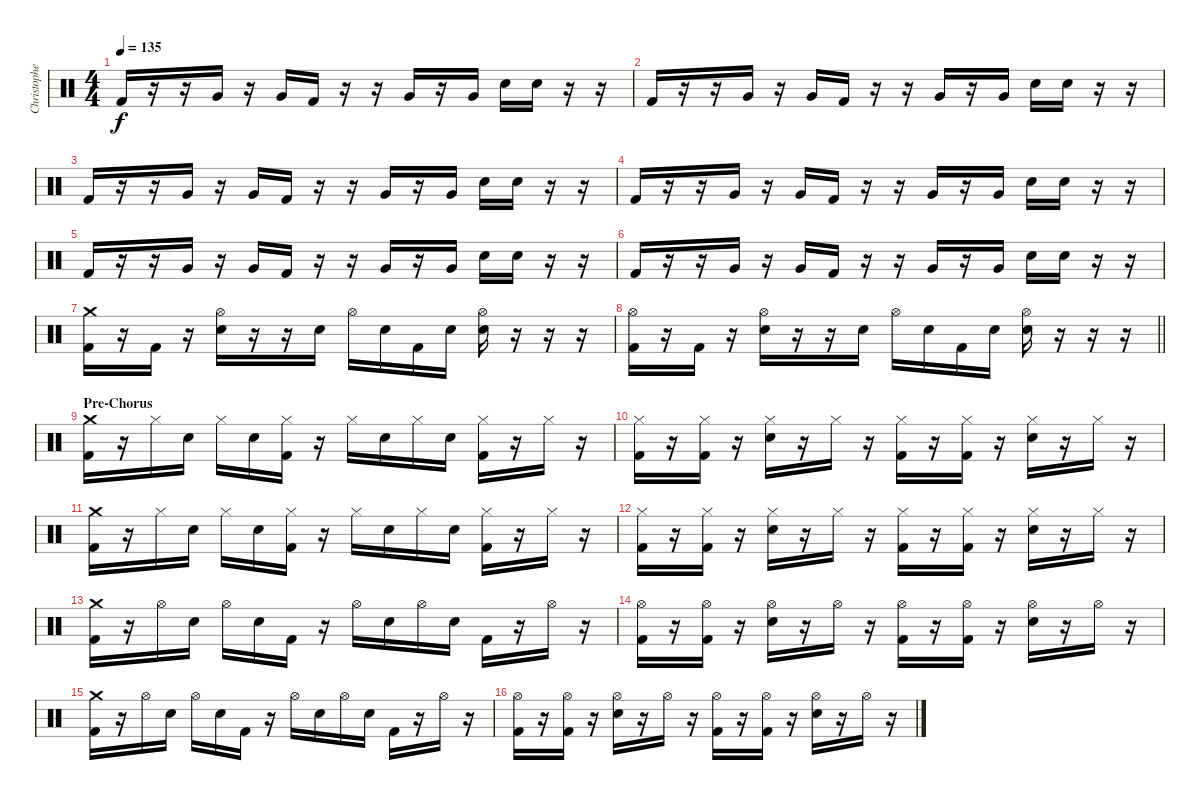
\track ("Christopher - Drums" "Christophe") {instrument percussion}
\staff {score}
\articulation defaults
\ts (4 4)
\tempo 135
\clef neutral
\ks c "Kick (hit) 2".16{dy f}
r.16 r.16 "Very Low Tom (hit)".16 r.16 "Very Low Tom (hit)".16 "Kick (hit) 2".16 r.16 r.16 "Very Low Tom (hit)".16 r.16 "Very Low Tom (hit)".16 "Electric Snare (hit)".16 "Electric Snare (hit)".16 r.16 r.16 |
"Kick (hit) 2".16 r.16 r.16 "Very Low Tom (hit)".16 r.16 "Very Low Tom (hit)".16 "Kick (hit) 2".16 r.16 r.16 "Very Low Tom (hit)".16 r.16 "Very Low Tom (hit)".16 "Electric Snare (hit)".16 "Electric Snare (hit)".16 r.16 r.16 |
"Kick (hit) 2".16 r.16 r.16 "Very Low Tom (hit)".16 r.16 "Very Low Tom (hit)".16 "Kick (hit) 2".16 r.16 r.16 "Very Low Tom (hit)".16 r.16 "Very Low Tom (hit)".16 "Electric Snare (hit)".16 "Electric Snare (hit)".16 r.16 r.16 |
"Kick (hit) 2".16 r.16 r.16 "Very Low Tom (hit)".16 r.16 "Very Low Tom (hit)".16 "Kick (hit) 2".16 r.16 r.16 "Very Low Tom (hit)".16 r.16 "Very Low Tom (hit)".16 "Electric Snare (hit)".16 "Electric Snare (hit)".16 r.16 r.16 |
"Kick (hit) 2".16 r.16 r.16 "Very Low Tom (hit)".16 r.16 "Very Low Tom (hit)".16 "Kick (hit) 2".16 r.16 r.16 "Very Low Tom (hit)".16 r.16 "Very Low Tom (hit)".16 "Electric Snare (hit)".16 "Electric Snare (hit)".16 r.16 r.16 |
"Kick (hit) 2".16 r.16 r.16 "Very Low Tom (hit)".16 r.16 "Very Low Tom (hit)".16 "Kick (hit) 2".16 r.16 r.16 "Very Low Tom (hit)".16 r.16 "Very Low Tom (hit)".16 "Electric Snare (hit)".16 "Electric Snare (hit)".16 r.16 r.16 |
("Crash medium (hit)" "Kick (hit) 2").16 r.16 "Kick (hit) 2".16 r.16 ("Hi-Hat (open)" "Electric Snare (hit)").16 r.16 r.16 "Electric Snare (hit)".16 "Hi-Hat (open)".16 "Electric Snare (hit)".16 "Kick (hit) 2".16 "Electric Snare (hit)".16 ("Hi-Hat (open)" "Electric Snare (hit)").16 r.16 r.16 r.16 |
\barLineRight lightlight
("Hi-Hat (open)" "Kick (hit) 2").16 r.16 "Kick (hit) 2".16 r.16 ("Hi-Hat (open)" "Electric Snare (hit)").16 r.16 r.16 "Electric Snare (hit)".16 "Hi-Hat (open)".16 "Electric Snare (hit)".16 "Kick (hit) 2".16 "Electric Snare (hit)".16 ("Hi-Hat (open)" "Electric Snare (hit)").16 r.16 r.16 r.16 |
\section ("" "Pre-Chorus")
("Crash medium (hit)" "Kick (hit) 2").16 r.16 "Hi-Hat (closed)".16 "Electric Snare (hit)".16 "Hi-Hat (closed)".16 "Electric Snare (hit)".16 ("Hi-Hat (closed)" "Kick (hit) 2").16 r.16 "Hi-Hat (closed)".16 "Electric Snare (hit)".16 "Hi-Hat (closed)".16 "Electric Snare (hit)".16 ("Hi-Hat (closed)" "Kick (hit) 2").16 r.16 "Hi-Hat (closed)".16 r.16 |
("Hi-Hat (closed)" "Kick (hit) 2").16 r.16 ("Hi-Hat (closed)" "Kick (hit) 2").16 r.16 ("Hi-Hat (closed)" "Electric Snare (hit)").16 r.16 "Hi-Hat (closed)".16 r.16 ("Hi-Hat (closed)" "Kick (hit) 2").16 r.16 ("Hi-Hat (closed)" "Kick (hit) 2").16 r.16 ("Hi-Hat (closed)" "Electric Snare (hit)").16 r.16 "Hi-Hat (closed)".16 r.16 |
("Crash medium (hit)" "Kick (hit) 2").16 r.16 "Hi-Hat (closed)".16 "Electric Snare (hit)".16 "Hi-Hat (closed)".16 "Electric Snare (hit)".16 ("Hi-Hat (closed)" "Kick (hit) 2").16 r.16 "Hi-Hat (closed)".16 "Electric Snare (hit)".16 "Hi-Hat (closed)".16 "Electric Snare (hit)".16 ("Hi-Hat (closed)" "Kick (hit) 2").16 r.16 "Hi-Hat (closed)".16 r.16 |
("Hi-Hat (closed)" "Kick (hit) 2").16 r.16 ("Hi-Hat (closed)" "Kick (hit) 2").16 r.16 ("Hi-Hat (closed)" "Electric Snare (hit)").16 r.16 "Hi-Hat (closed)".16 r.16 ("Hi-Hat (closed)" "Kick (hit) 2").16 r.16 ("Hi-Hat (closed)" "Kick (hit) 2").16 r.16 ("Hi-Hat (closed)" "Electric Snare (hit)").16 r.16 "Hi-Hat (closed)".16 r.16 |
("Crash medium (hit)" "Kick (hit) 2").16 r.16 "Hi-Hat (open)".16 "Electric Snare (hit)".16 "Hi-Hat (open)".16 "Electric Snare (hit)".16 "Kick (hit) 2".16 r.16 "Hi-Hat (open)".16 "Electric Snare (hit)".16 "Hi-Hat (open)".16 "Electric Snare (hit)".16 "Kick (hit) 2".16 r.16 "Hi-Hat (open)".16 r.16 |
("Hi-Hat (open)" "Kick (hit) 2").16 r.16 ("Hi-Hat (open)" "Kick (hit) 2").16 r.16 ("Hi-Hat (open)" "Electric Snare (hit)").16 r.16 "Hi-Hat (open)".16 r.16 ("Hi-Hat (open)" "Kick (hit) 2").16 r.16 ("Hi-Hat (open)" "Kick (hit) 2").16 r.16 ("Hi-Hat (open)" "Electric Snare (hit)").16 r.16 "Hi-Hat (open)".16 r.16 |
("Crash medium (hit)" "Kick (hit) 2").16 r.16 "Hi-Hat (open)".16 "Electric Snare (hit)".16 "Hi-Hat (open)".16 "Electric Snare (hit)".16 "Kick (hit) 2".16 r.16 "Hi-Hat (open)".16 "Electric Snare (hit)".16 "Hi-Hat (open)".16 "Electric Snare (hit)".16 "Kick (hit) 2".16 r.16 "Hi-Hat (open)".16 r.16 |
("Hi-Hat (open)" "Kick (hit) 2").16 r.16 ("Hi-Hat (open)" "Kick (hit) 2").16 r.16 ("Hi-Hat (open)" "Electric Snare (hit)").16 r.16 "Hi-Hat (open)".16 r.16 ("Hi-Hat (open)" "Kick (hit) 2").16 r.16 ("Hi-Hat (open)" "Kick (hit) 2").16 r.16 ("Hi-Hat (open)" "Electric Snare (hit)").16 r.16 "Hi-Hat (open)".16 r.16
